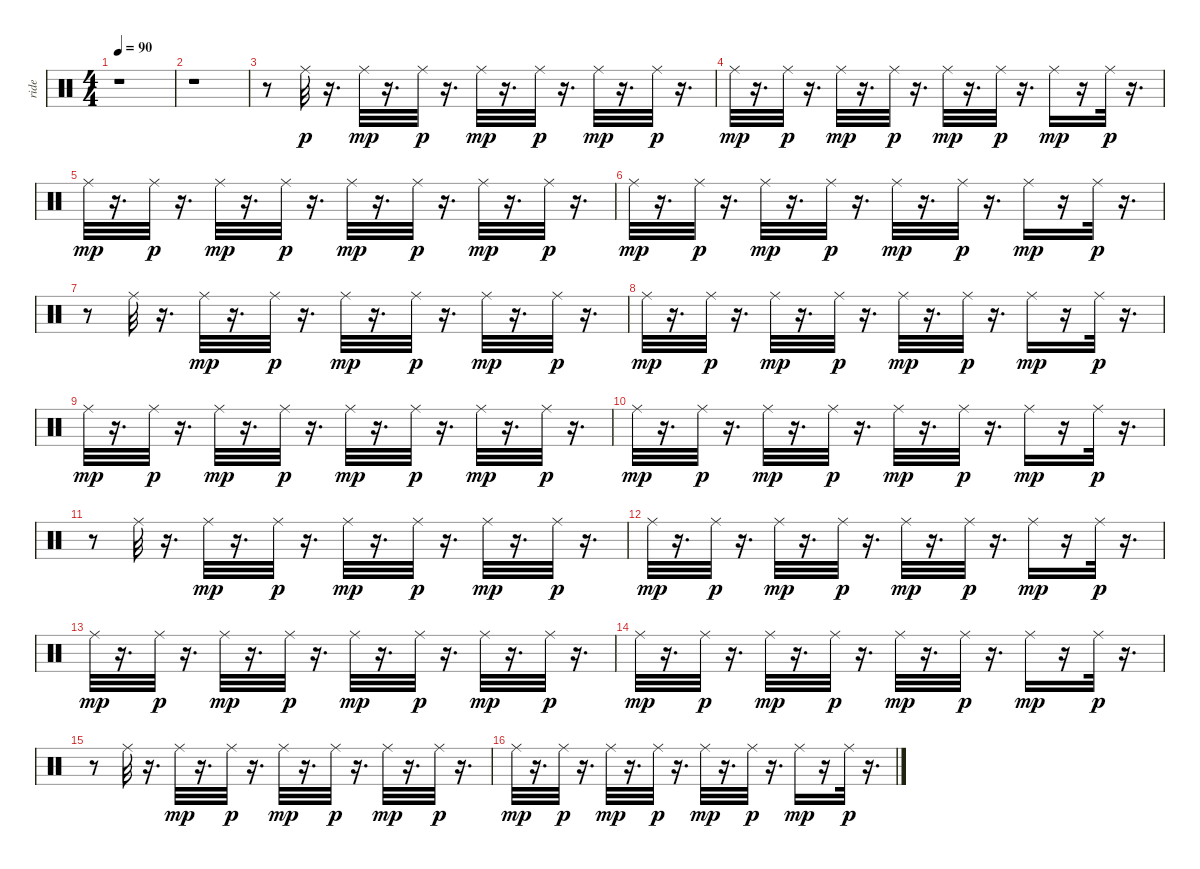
\track ("ride" "ride") {instrument percussion}
\staff {score}
\articulation defaults
\ts (4 4)
\tempo 90
\clef neutral
\ks c
r.1{dy p} |
r.1 |
r.8 "Ride (middle)".32 r.16{d} "Ride (middle)".32{dy mp} r.16{d} "Ride (middle)".32{dy p} r.16{d} "Ride (middle)".32{dy mp} r.16{d} "Ride (middle)".32{dy p} r.16{d} "Ride (middle)".32{dy mp} r.16{d} "Ride (middle)".32{dy p} r.16{d} |
"Ride (middle)".32{dy mp} r.16{d} "Ride (middle)".32{dy p} r.16{d} "Ride (middle)".32{dy mp} r.16{d} "Ride (middle)".32{dy p} r.16{d} "Ride (middle)".32{dy mp} r.16{d} "Ride (middle)".32{dy p} r.16{d} "Ride (middle)".16{dy mp} r.16 "Ride (middle)".32{dy p} r.16{d} |
"Ride (middle)".32{dy mp} r.16{d} "Ride (middle)".32{dy p} r.16{d} "Ride (middle)".32{dy mp} r.16{d} "Ride (middle)".32{dy p} r.16{d} "Ride (middle)".32{dy mp} r.16{d} "Ride (middle)".32{dy p} r.16{d} "Ride (middle)".32{dy mp} r.16{d} "Ride (middle)".32{dy p} r.16{d} |
"Ride (middle)".32{dy mp} r.16{d} "Ride (middle)".32{dy p} r.16{d} "Ride (middle)".32{dy mp} r.16{d} "Ride (middle)".32{dy p} r.16{d} "Ride (middle)".32{dy mp} r.16{d} "Ride (middle)".32{dy p} r.16{d} "Ride (middle)".16{dy mp} r.16 "Ride (middle)".32{dy p} r.16{d} |
r.8 "Ride (middle)".32 r.16{d} "Ride (middle)".32{dy mp} r.16{d} "Ride (middle)".32{dy p} r.16{d} "Ride (middle)".32{dy mp} r.16{d} "Ride (middle)".32{dy p} r.16{d} "Ride (middle)".32{dy mp} r.16{d} "Ride (middle)".32{dy p} r.16{d} |
"Ride (middle)".32{dy mp} r.16{d} "Ride (middle)".32{dy p} r.16{d} "Ride (middle)".32{dy mp} r.16{d} "Ride (middle)".32{dy p} r.16{d} "Ride (middle)".32{dy mp} r.16{d} "Ride (middle)".32{dy p} r.16{d} "Ride (middle)".16{dy mp} r.16 "Ride (middle)".32{dy p} r.16{d} |
"Ride (middle)".32{dy mp} r.16{d} "Ride (middle)".32{dy p} r.16{d} "Ride (middle)".32{dy mp} r.16{d} "Ride (middle)".32{dy p} r.16{d} "Ride (middle)".32{dy mp} r.16{d} "Ride (middle)".32{dy p} r.16{d} "Ride (middle)".32{dy mp} r.16{d} "Ride (middle)".32{dy p} r.16{d} |
"Ride (middle)".32{dy mp} r.16{d} "Ride (middle)".32{dy p} r.16{d} "Ride (middle)".32{dy mp} r.16{d} "Ride (middle)".32{dy p} r.16{d} "Ride (middle)".32{dy mp} r.16{d} "Ride (middle)".32{dy p} r.16{d} "Ride (middle)".16{dy mp} r.16 "Ride (middle)".32{dy p} r.16{d} |
r.8 "Ride (middle)".32 r.16{d} "Ride (middle)".32{dy mp} r.16{d} "Ride (middle)".32{dy p} r.16{d} "Ride (middle)".32{dy mp} r.16{d} "Ride (middle)".32{dy p} r.16{d} "Ride (middle)".32{dy mp} r.16{d} "Ride (middle)".32{dy p} r.16{d} |
"Ride (middle)".32{dy mp} r.16{d} "Ride (middle)".32{dy p} r.16{d} "Ride (middle)".32{dy mp} r.16{d} "Ride (middle)".32{dy p} r.16{d} "Ride (middle)".32{dy mp} r.16{d} "Ride (middle)".32{dy p} r.16{d} "Ride (middle)".16{dy mp} r.16 "Ride (middle)".32{dy p} r.16{d} |
"Ride (middle)".32{dy mp} r.16{d} "Ride (middle)".32{dy p} r.16{d} "Ride (middle)".32{dy mp} r.16{d} "Ride (middle)".32{dy p} r.16{d} "Ride (middle)".32{dy mp} r.16{d} "Ride (middle)".32{dy p} r.16{d} "Ride (middle)".32{dy mp} r.16{d} "Ride (middle)".32{dy p} r.16{d} |
"Ride (middle)".32{dy mp} r.16{d} "Ride (middle)".32{dy p} r.16{d} "Ride (middle)".32{dy mp} r.16{d} "Ride (middle)".32{dy p} r.16{d} "Ride (middle)".32{dy mp} r.16{d} "Ride (middle)".32{dy p} r.16{d} "Ride (middle)".16{dy mp} r.16 "Ride (middle)".32{dy p} r.16{d} |
r.8 "Ride (middle)".32 r.16{d} "Ride (middle)".32{dy mp} r.16{d} "Ride (middle)".32{dy p} r.16{d} "Ride (middle)".32{dy mp} r.16{d} "Ride (middle)".32{dy p} r.16{d} "Ride (middle)".32{dy mp} r.16{d} "Ride (middle)".32{dy p} r.16{d} |
"Ride (middle)".32{dy mp} r.16{d} "Ride (middle)".32{dy p} r.16{d} "Ride (middle)".32{dy mp} r.16{d} "Ride (middle)".32{dy p} r.16{d} "Ride (middle)".32{dy mp} r.16{d} "Ride (middle)".32{dy p} r.16{d} "Ride (middle)".16{dy mp} r.16 "Ride (middle)".32{dy p} r.16{d}
